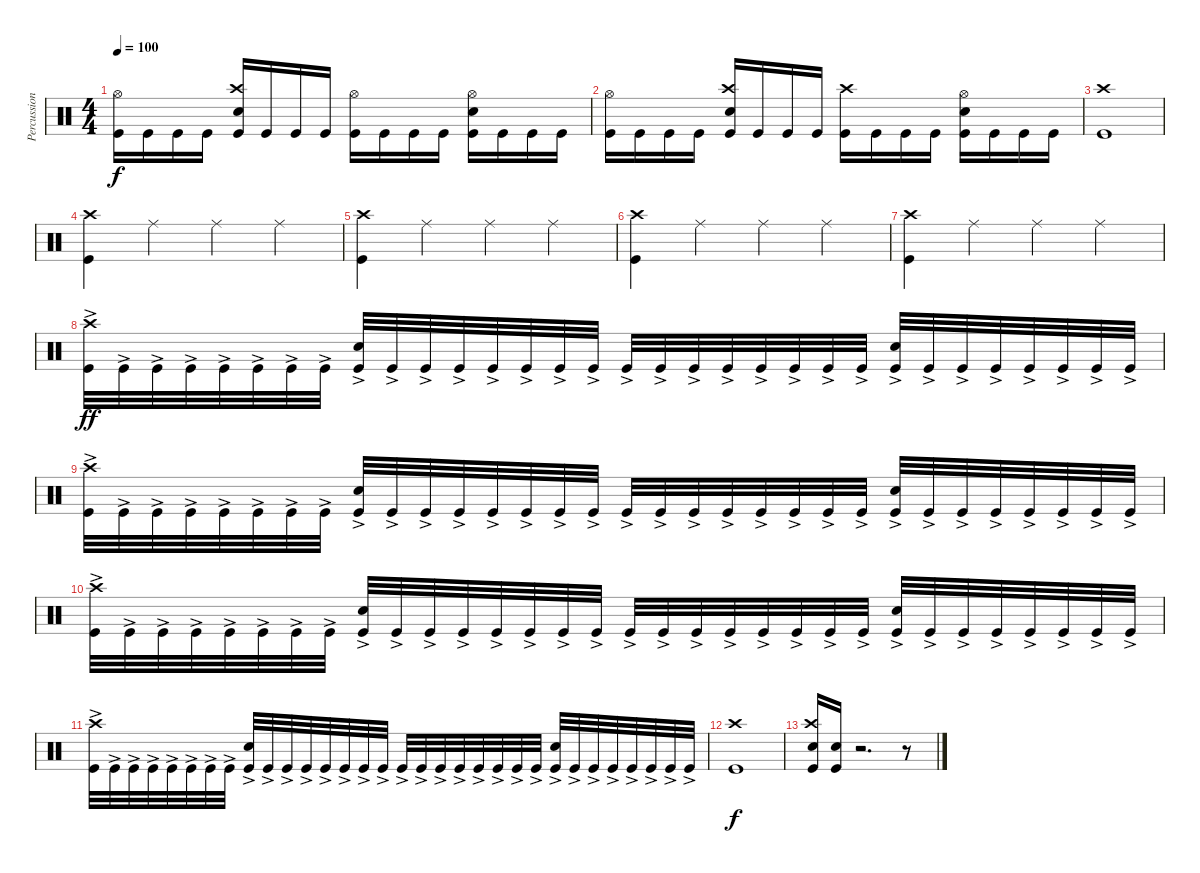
\track ("Percussion" "Percussion") {instrument percussion}
\staff {score}
\articulation defaults
\ts (4 4)
\tempo 100
\clef neutral
\ks c
("Hi-Hat (open)" "Kick (hit)").16{dy f} "Kick (hit)".16 "Kick (hit)".16 "Kick (hit)".16 ("Crash high (hit)" "Electric Snare (hit)" "Kick (hit)").16 "Kick (hit)".16 "Kick (hit)".16 "Kick (hit)".16 ("Hi-Hat (open)" "Kick (hit)").16 "Kick (hit)".16 "Kick (hit)".16 "Kick (hit)".16 ("Hi-Hat (open)" "Electric Snare (hit)" "Kick (hit)").16 "Kick (hit)".16 "Kick (hit)".16 "Kick (hit)".16 |
("Hi-Hat (open)" "Kick (hit)").16 "Kick (hit)".16 "Kick (hit)".16 "Kick (hit)".16 ("Crash high (hit)" "Electric Snare (hit)" "Kick (hit)").16 "Kick (hit)".16 "Kick (hit)".16 "Kick (hit)".16 ("Crash high (hit)" "Kick (hit)").16 "Kick (hit)".16 "Kick (hit)".16 "Kick (hit)".16 ("Hi-Hat (open)" "Electric Snare (hit)" "Kick (hit)").16 "Kick (hit)".16 "Kick (hit)".16 "Kick (hit)".16 |
("Crash high (hit)" "Kick (hit)").1 |
("Crash high (hit)" "Kick (hit)").4 "Ride (middle)".4 "Ride (middle)".4 "Ride (middle)".4 |
("Crash high (hit)" "Kick (hit)").4 "Ride (middle)".4 "Ride (middle)".4 "Ride (middle)".4 |
("Crash high (hit)" "Kick (hit)").4 "Ride (middle)".4 "Ride (middle)".4 "Ride (middle)".4 |
("Crash high (hit)" "Kick (hit)").4 "Ride (middle)".4 "Ride (middle)".4 "Ride (middle)".4 |
("Crash high (hit)"{ac} "Kick (hit)"{ac}).32{dy ff} "Kick (hit)"{ac}.32 "Kick (hit)"{ac}.32 "Kick (hit)"{ac}.32 "Kick (hit)"{ac}.32 "Kick (hit)"{ac}.32 "Kick (hit)"{ac}.32 "Kick (hit)"{ac}.32 ("Electric Snare (hit)"{ac} "Kick (hit)"{ac}).32 "Kick (hit)"{ac}.32 "Kick (hit)"{ac}.32 "Kick (hit)"{ac}.32 "Kick (hit)"{ac}.32 "Kick (hit)"{ac}.32 "Kick (hit)"{ac}.32 "Kick (hit)"{ac}.32 "Kick (hit)"{ac}.32 "Kick (hit)"{ac}.32 "Kick (hit)"{ac}.32 "Kick (hit)"{ac}.32 "Kick (hit)"{ac}.32 "Kick (hit)"{ac}.32 "Kick (hit)"{ac}.32 "Kick (hit)"{ac}.32 ("Electric Snare (hit)"{ac} "Kick (hit)"{ac}).32 "Kick (hit)"{ac}.32 "Kick (hit)"{ac}.32 "Kick (hit)"{ac}.32 "Kick (hit)"{ac}.32 "Kick (hit)"{ac}.32 "Kick (hit)"{ac}.32 "Kick (hit)"{ac}.32 |
("Crash high (hit)"{ac} "Kick (hit)"{ac}).32 "Kick (hit)"{ac}.32 "Kick (hit)"{ac}.32 "Kick (hit)"{ac}.32 "Kick (hit)"{ac}.32 "Kick (hit)"{ac}.32 "Kick (hit)"{ac}.32 "Kick (hit)"{ac}.32 ("Electric Snare (hit)"{ac} "Kick (hit)"{ac}).32 "Kick (hit)"{ac}.32 "Kick (hit)"{ac}.32 "Kick (hit)"{ac}.32 "Kick (hit)"{ac}.32 "Kick (hit)"{ac}.32 "Kick (hit)"{ac}.32 "Kick (hit)"{ac}.32 "Kick (hit)"{ac}.32 "Kick (hit)"{ac}.32 "Kick (hit)"{ac}.32 "Kick (hit)"{ac}.32 "Kick (hit)"{ac}.32 "Kick (hit)"{ac}.32 "Kick (hit)"{ac}.32 "Kick (hit)"{ac}.32 ("Electric Snare (hit)"{ac} "Kick (hit)"{ac}).32 "Kick (hit)"{ac}.32 "Kick (hit)"{ac}.32 "Kick (hit)"{ac}.32 "Kick (hit)"{ac}.32 "Kick (hit)"{ac}.32 "Kick (hit)"{ac}.32 "Kick (hit)"{ac}.32 |
("Crash high (hit)"{ac} "Kick (hit)"{ac}).32 "Kick (hit)"{ac}.32 "Kick (hit)"{ac}.32 "Kick (hit)"{ac}.32 "Kick (hit)"{ac}.32 "Kick (hit)"{ac}.32 "Kick (hit)"{ac}.32 "Kick (hit)"{ac}.32 ("Electric Snare (hit)"{ac} "Kick (hit)"{ac}).32 "Kick (hit)"{ac}.32 "Kick (hit)"{ac}.32 "Kick (hit)"{ac}.32 "Kick (hit)"{ac}.32 "Kick (hit)"{ac}.32 "Kick (hit)"{ac}.32 "Kick (hit)"{ac}.32 "Kick (hit)"{ac}.32 "Kick (hit)"{ac}.32 "Kick (hit)"{ac}.32 "Kick (hit)"{ac}.32 "Kick (hit)"{ac}.32 "Kick (hit)"{ac}.32 "Kick (hit)"{ac}.32 "Kick (hit)"{ac}.32 ("Electric Snare (hit)"{ac} "Kick (hit)"{ac}).32 "Kick (hit)"{ac}.32 "Kick (hit)"{ac}.32 "Kick (hit)"{ac}.32 "Kick (hit)"{ac}.32 "Kick (hit)"{ac}.32 "Kick (hit)"{ac}.32 "Kick (hit)"{ac}.32 |
("Crash high (hit)"{ac} "Kick (hit)"{ac}).32 "Kick (hit)"{ac}.32 "Kick (hit)"{ac}.32 "Kick (hit)"{ac}.32 "Kick (hit)"{ac}.32 "Kick (hit)"{ac}.32 "Kick (hit)"{ac}.32 "Kick (hit)"{ac}.32 ("Electric Snare (hit)"{ac} "Kick (hit)"{ac}).32 "Kick (hit)"{ac}.32 "Kick (hit)"{ac}.32 "Kick (hit)"{ac}.32 "Kick (hit)"{ac}.32 "Kick (hit)"{ac}.32 "Kick (hit)"{ac}.32 "Kick (hit)"{ac}.32 "Kick (hit)"{ac}.32 "Kick (hit)"{ac}.32 "Kick (hit)"{ac}.32 "Kick (hit)"{ac}.32 "Kick (hit)"{ac}.32 "Kick (hit)"{ac}.32 "Kick (hit)"{ac}.32 "Kick (hit)"{ac}.32 ("Electric Snare (hit)"{ac} "Kick (hit)"{ac}).32 "Kick (hit)"{ac}.32 "Kick (hit)"{ac}.32 "Kick (hit)"{ac}.32 "Kick (hit)"{ac}.32 "Kick (hit)"{ac}.32 "Kick (hit)"{ac}.32 "Kick (hit)"{ac}.32 |
("Crash high (hit)" "Kick (hit)").1{dy f} |
("Crash high (hit)" "Electric Snare (hit)" "Kick (hit)").16 ("Electric Snare (hit)" "Kick (hit)").16 r.2{d} r.8
